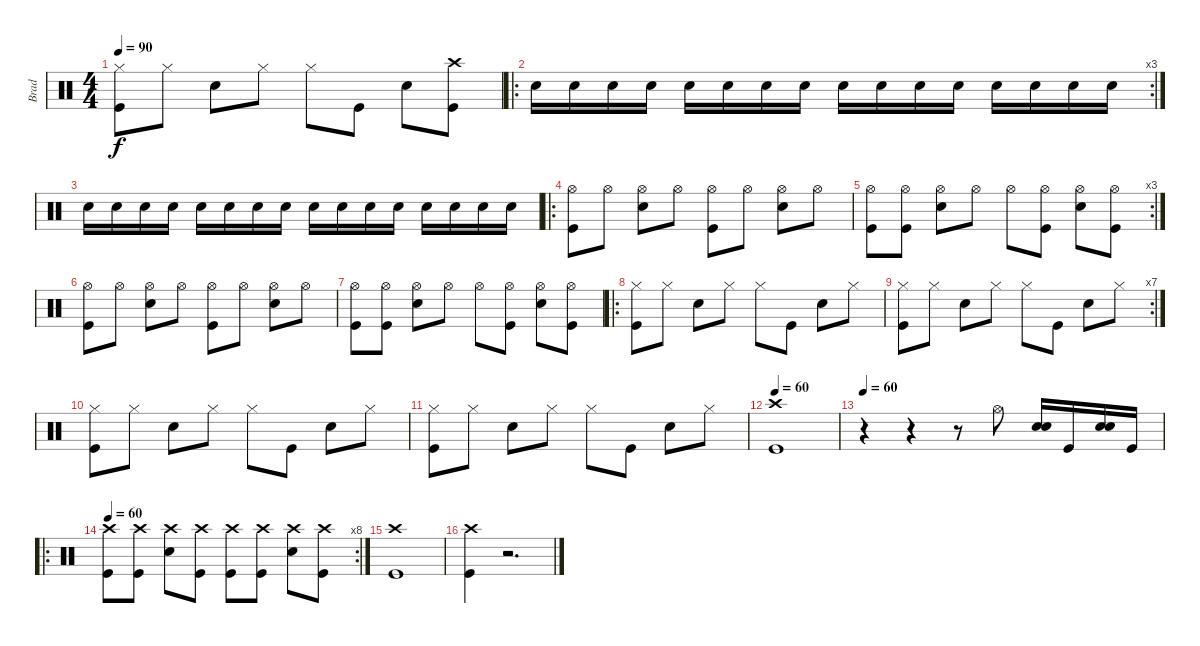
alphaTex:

\track ("Brad" "Brad") {instrument percussion}
\staff {score}
\articulation defaults
\ts (4 4)
\tempo 90
\clef neutral
\ks c
("Hi-Hat (closed)" "Kick (hit)").8{dy f} "Hi-Hat (closed)".8 "Electric Snare (hit)".8 "Hi-Hat (closed)".8 "Hi-Hat (closed)".8 "Kick (hit)".8 "Electric Snare (hit)".8 ("Crash high (hit)" "Kick (hit)").8 |
\ro
\rc 3 "Electric Snare (hit)".16{volume 3} "Electric Snare (hit)".16 "Electric Snare (hit)".16 "Electric Snare (hit)".16 "Electric Snare (hit)".16 "Electric Snare (hit)".16 "Electric Snare (hit)".16 "Electric Snare (hit)".16 "Electric Snare (hit)".16 "Electric Snare (hit)".16 "Electric Snare (hit)".16 "Electric Snare (hit)".16 "Electric Snare (hit)".16 "Electric Snare (hit)".16 "Electric Snare (hit)".16 "Electric Snare (hit)".16
|
"Electric Snare (hit)".16{volume 3} "Electric Snare (hit)".16 "Electric Snare (hit)".16 "Electric Snare (hit)".16{volume 6} "Electric Snare (hit)".16 "Electric Snare (hit)".16{volume 7} "Electric Snare (hit)".16 "Electric Snare (hit)".16{volume 9} "Electric Snare (hit)".16 "Electric Snare (hit)".16 "Electric Snare (hit)".16{volume 10} "Electric Snare (hit)".16 "Electric Snare (hit)".16{volume 13} "Electric Snare (hit)".16 "Electric Snare (hit)".16 "Electric Snare (hit)".16 |
\ro
("Hi-Hat (open)" "Kick (hit)").8 "Hi-Hat (open)".8 ("Hi-Hat (open)" "Electric Snare (hit)").8 "Hi-Hat (open)".8 ("Hi-Hat (open)" "Kick (hit)").8 "Hi-Hat (open)".8 ("Hi-Hat (open)" "Electric Snare (hit)").8 "Hi-Hat (open)".8 |
\rc 3
("Hi-Hat (open)" "Kick (hit)").8 ("Hi-Hat (open)" "Kick (hit)").8 ("Hi-Hat (open)" "Electric Snare (hit)").8 "Hi-Hat (open)".8 "Hi-Hat (open)".8 ("Hi-Hat (open)" "Kick (hit)").8 ("Hi-Hat (open)" "Electric Snare (hit)").8 ("Hi-Hat (open)" "Kick (hit)").8 |
("Hi-Hat (open)" "Kick (hit)").8 "Hi-Hat (open)".8 ("Hi-Hat (open)" "Electric Snare (hit)").8 "Hi-Hat (open)".8 ("Hi-Hat (open)" "Kick (hit)").8 "Hi-Hat (open)".8 ("Hi-Hat (open)" "Electric Snare (hit)").8 "Hi-Hat (open)".8 |
("Hi-Hat (open)" "Kick (hit)").8 ("Hi-Hat (open)" "Kick (hit)").8 ("Hi-Hat (open)" "Electric Snare (hit)").8 "Hi-Hat (open)".8 "Hi-Hat (open)".8 ("Hi-Hat (open)" "Kick (hit)").8 ("Hi-Hat (open)" "Electric Snare (hit)").8 ("Hi-Hat (open)" "Kick (hit)").8 |
\ro
("Hi-Hat (closed)" "Kick (hit)").8 "Hi-Hat (closed)".8 "Electric Snare (hit)".8 "Hi-Hat (closed)".8 "Hi-Hat (closed)".8 "Kick (hit)".8 "Electric Snare (hit)".8 "Hi-Hat (closed)".8 |
\rc 7
("Hi-Hat (closed)" "Kick (hit)").8 "Hi-Hat (closed)".8 "Electric Snare (hit)".8 "Hi-Hat (closed)".8 "Hi-Hat (closed)".8 "Kick (hit)".8 "Electric Snare (hit)".8 "Hi-Hat (closed)".8 |
("Hi-Hat (closed)" "Kick (hit)").8 "Hi-Hat (closed)".8 "Electric Snare (hit)".8 "Hi-Hat (closed)".8 "Hi-Hat (closed)".8 "Kick (hit)".8 "Electric Snare (hit)".8 "Hi-Hat (closed)".8 |
("Hi-Hat (closed)" "Kick (hit)").8 "Hi-Hat (closed)".8 "Electric Snare (hit)".8 "Hi-Hat (closed)".8 "Hi-Hat (closed)".8 "Kick (hit)".8 "Electric Snare (hit)".8 "Hi-Hat (closed)".8 |
\tempo 60
("Crash high (hit)" "Kick (hit)").1 |
\tempo 60
r.4 r.4 r.8 "Hi-Hat (open)".8 ("Electric Snare (hit)" "Electric Snare (hit)").16{bd 120} "Kick (hit)".16 ("Electric Snare (hit)" "Electric Snare (hit)").16{bd 120} "Kick (hit)".16 |
\ro
\rc 8
\tempo 60
("Crash high (hit)" "Kick (hit)").8 ("Crash high (hit)" "Kick (hit)").8 ("Crash high (hit)" "Electric Snare (hit)").8 ("Crash high (hit)" "Kick (hit)").8 ("Crash high (hit)" "Kick (hit)").8 ("Crash high (hit)" "Kick (hit)").8 ("Crash high (hit)" "Electric Snare (hit)").8 ("Crash high (hit)" "Kick (hit)").8 |
("Crash high (hit)" "Kick (hit)").1 |
("Crash high (hit)" "Kick (hit)").4 r.2{d}
